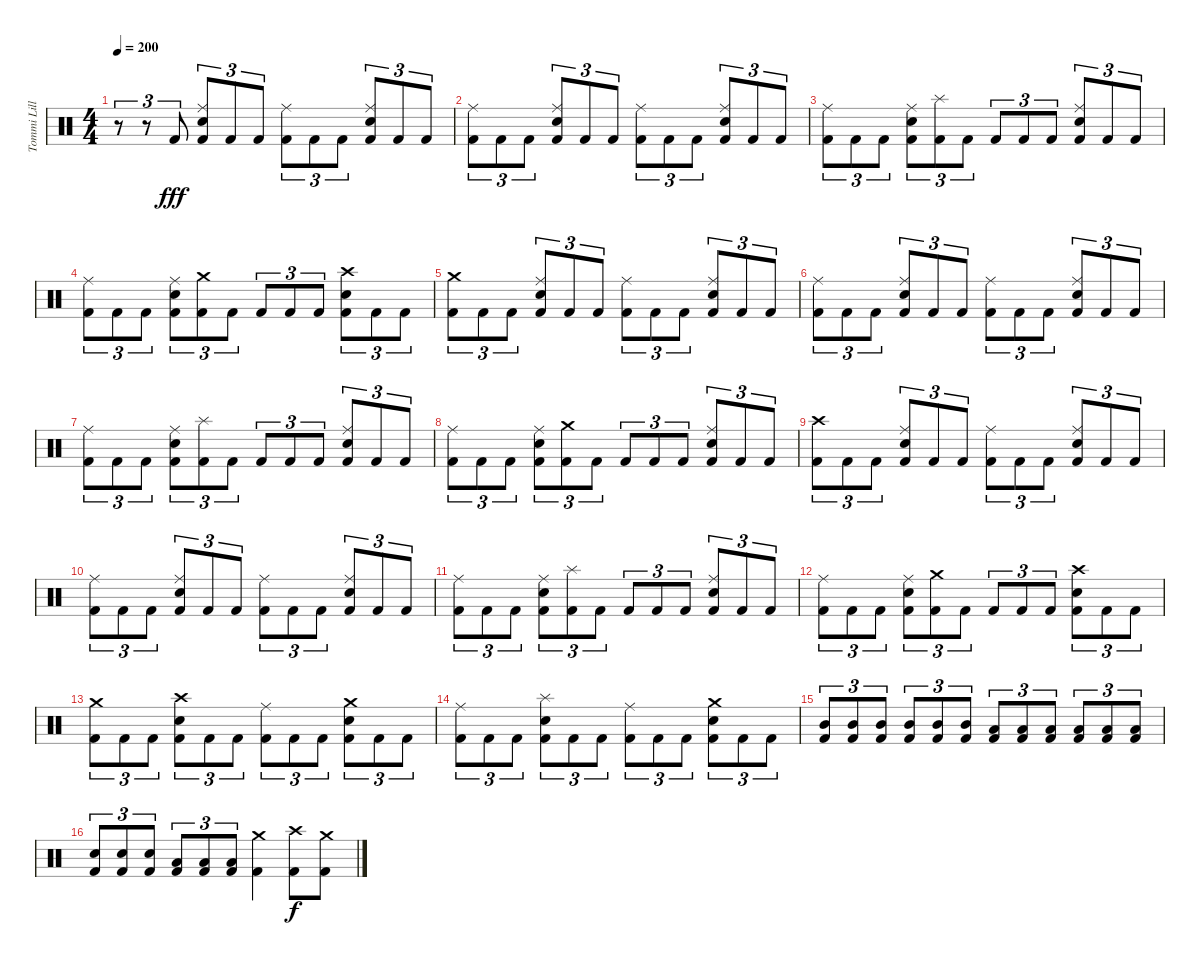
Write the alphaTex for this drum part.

\track ("Tommi Lillman" "Tommi Lill") {instrument percussion}
\staff {score}
\articulation defaults
\ts (4 4)
\tempo 200
\clef neutral
\ks c
r.8{tu (3 2) dy fff} r.8{tu (3 2)} "Kick (hit) 2".8{tu (3 2)} ("Ride (middle)" "Electric Snare (hit)" "Kick (hit) 2").8{tu (3 2)} "Kick (hit) 2".8{tu (3 2)} "Kick (hit) 2".8{tu (3 2)} ("Ride (middle)" "Kick (hit) 2").8{tu (3 2)} "Kick (hit) 2".8{tu (3 2)} "Kick (hit) 2".8{tu (3 2)} ("Ride (middle)" "Electric Snare (hit)" "Kick (hit) 2").8{tu (3 2)} "Kick (hit) 2".8{tu (3 2)} "Kick (hit) 2".8{tu (3 2)} |
("Ride (middle)" "Kick (hit) 2").8{tu (3 2)} "Kick (hit) 2".8{tu (3 2)} "Kick (hit) 2".8{tu (3 2)} ("Ride (middle)" "Electric Snare (hit)" "Kick (hit) 2").8{tu (3 2)} "Kick (hit) 2".8{tu (3 2)} "Kick (hit) 2".8{tu (3 2)} ("Ride (middle)" "Kick (hit) 2").8{tu (3 2)} "Kick (hit) 2".8{tu (3 2)} "Kick (hit) 2".8{tu (3 2)} ("Ride (middle)" "Electric Snare (hit)" "Kick (hit) 2").8{tu (3 2)} "Kick (hit) 2".8{tu (3 2)} "Kick (hit) 2".8{tu (3 2)} |
("Ride (middle)" "Kick (hit) 2").8{tu (3 2)} "Kick (hit) 2".8{tu (3 2)} "Kick (hit) 2".8{tu (3 2)} ("Ride (middle)" "Electric Snare (hit)" "Kick (hit) 2").8{tu (3 2)} ("Splash (hit)" "Kick (hit) 2").8{tu (3 2)} "Kick (hit) 2".8{tu (3 2)} "Kick (hit) 2".8{tu (3 2)} "Kick (hit) 2".8{tu (3 2)} "Kick (hit) 2".8{tu (3 2)} ("Ride (middle)" "Electric Snare (hit)" "Kick (hit) 2").8{tu (3 2)} "Kick (hit) 2".8{tu (3 2)} "Kick (hit) 2".8{tu (3 2)} |
("Ride (middle)" "Kick (hit) 2").8{tu (3 2)} "Kick (hit) 2".8{tu (3 2)} "Kick (hit) 2".8{tu (3 2)} ("Ride (middle)" "Electric Snare (hit)" "Kick (hit) 2").8{tu (3 2)} ("Crash medium (hit)" "Kick (hit) 2").8{tu (3 2)} "Kick (hit) 2".8{tu (3 2)} "Kick (hit) 2".8{tu (3 2)} "Kick (hit) 2".8{tu (3 2)} "Kick (hit) 2".8{tu (3 2)} ("Crash high (hit)" "Electric Snare (hit)" "Kick (hit) 2").8{tu (3 2)} "Kick (hit) 2".8{tu (3 2)} "Kick (hit) 2".8{tu (3 2)} |
("Crash medium (hit)" "Kick (hit) 2").8{tu (3 2)} "Kick (hit) 2".8{tu (3 2)} "Kick (hit) 2".8{tu (3 2)} ("Ride (middle)" "Electric Snare (hit)" "Kick (hit) 2").8{tu (3 2)} "Kick (hit) 2".8{tu (3 2)} "Kick (hit) 2".8{tu (3 2)} ("Ride (middle)" "Kick (hit) 2").8{tu (3 2)} "Kick (hit) 2".8{tu (3 2)} "Kick (hit) 2".8{tu (3 2)} ("Ride (middle)" "Electric Snare (hit)" "Kick (hit) 2").8{tu (3 2)} "Kick (hit) 2".8{tu (3 2)} "Kick (hit) 2".8{tu (3 2)} |
("Ride (middle)" "Kick (hit) 2").8{tu (3 2)} "Kick (hit) 2".8{tu (3 2)} "Kick (hit) 2".8{tu (3 2)} ("Ride (middle)" "Electric Snare (hit)" "Kick (hit) 2").8{tu (3 2)} "Kick (hit) 2".8{tu (3 2)} "Kick (hit) 2".8{tu (3 2)} ("Ride (middle)" "Kick (hit) 2").8{tu (3 2)} "Kick (hit) 2".8{tu (3 2)} "Kick (hit) 2".8{tu (3 2)} ("Ride (middle)" "Electric Snare (hit)" "Kick (hit) 2").8{tu (3 2)} "Kick (hit) 2".8{tu (3 2)} "Kick (hit) 2".8{tu (3 2)} |
("Ride (middle)" "Kick (hit) 2").8{tu (3 2)} "Kick (hit) 2".8{tu (3 2)} "Kick (hit) 2".8{tu (3 2)} ("Ride (middle)" "Electric Snare (hit)" "Kick (hit) 2").8{tu (3 2)} ("Splash (hit)" "Kick (hit) 2").8{tu (3 2)} "Kick (hit) 2".8{tu (3 2)} "Kick (hit) 2".8{tu (3 2)} "Kick (hit) 2".8{tu (3 2)} "Kick (hit) 2".8{tu (3 2)} ("Ride (middle)" "Electric Snare (hit)" "Kick (hit) 2").8{tu (3 2)} "Kick (hit) 2".8{tu (3 2)} "Kick (hit) 2".8{tu (3 2)} |
("Ride (middle)" "Kick (hit) 2").8{tu (3 2)} "Kick (hit) 2".8{tu (3 2)} "Kick (hit) 2".8{tu (3 2)} ("Ride (middle)" "Electric Snare (hit)" "Kick (hit) 2").8{tu (3 2)} ("Crash medium (hit)" "Kick (hit) 2").8{tu (3 2)} "Kick (hit) 2".8{tu (3 2)} "Kick (hit) 2".8{tu (3 2)} "Kick (hit) 2".8{tu (3 2)} "Kick (hit) 2".8{tu (3 2)} ("Ride (middle)" "Electric Snare (hit)" "Kick (hit) 2").8{tu (3 2)} "Kick (hit) 2".8{tu (3 2)} "Kick (hit) 2".8{tu (3 2)} |
("Crash high (hit)" "Kick (hit) 2").8{tu (3 2)} "Kick (hit) 2".8{tu (3 2)} "Kick (hit) 2".8{tu (3 2)} ("Ride (middle)" "Electric Snare (hit)" "Kick (hit) 2").8{tu (3 2)} "Kick (hit) 2".8{tu (3 2)} "Kick (hit) 2".8{tu (3 2)} ("Ride (middle)" "Kick (hit) 2").8{tu (3 2)} "Kick (hit) 2".8{tu (3 2)} "Kick (hit) 2".8{tu (3 2)} ("Ride (middle)" "Electric Snare (hit)" "Kick (hit) 2").8{tu (3 2)} "Kick (hit) 2".8{tu (3 2)} "Kick (hit) 2".8{tu (3 2)} |
("Ride (middle)" "Kick (hit) 2").8{tu (3 2)} "Kick (hit) 2".8{tu (3 2)} "Kick (hit) 2".8{tu (3 2)} ("Ride (middle)" "Electric Snare (hit)" "Kick (hit) 2").8{tu (3 2)} "Kick (hit) 2".8{tu (3 2)} "Kick (hit) 2".8{tu (3 2)} ("Ride (middle)" "Kick (hit) 2").8{tu (3 2)} "Kick (hit) 2".8{tu (3 2)} "Kick (hit) 2".8{tu (3 2)} ("Ride (middle)" "Electric Snare (hit)" "Kick (hit) 2").8{tu (3 2)} "Kick (hit) 2".8{tu (3 2)} "Kick (hit) 2".8{tu (3 2)} |
("Ride (middle)" "Kick (hit) 2").8{tu (3 2)} "Kick (hit) 2".8{tu (3 2)} "Kick (hit) 2".8{tu (3 2)} ("Ride (middle)" "Electric Snare (hit)" "Kick (hit) 2").8{tu (3 2)} ("Splash (hit)" "Kick (hit) 2").8{tu (3 2)} "Kick (hit) 2".8{tu (3 2)} "Kick (hit) 2".8{tu (3 2)} "Kick (hit) 2".8{tu (3 2)} "Kick (hit) 2".8{tu (3 2)} ("Ride (middle)" "Electric Snare (hit)" "Kick (hit) 2").8{tu (3 2)} "Kick (hit) 2".8{tu (3 2)} "Kick (hit) 2".8{tu (3 2)} |
("Ride (middle)" "Kick (hit) 2").8{tu (3 2)} "Kick (hit) 2".8{tu (3 2)} "Kick (hit) 2".8{tu (3 2)} ("Ride (middle)" "Electric Snare (hit)" "Kick (hit) 2").8{tu (3 2)} ("Crash medium (hit)" "Kick (hit) 2").8{tu (3 2)} "Kick (hit) 2".8{tu (3 2)} "Kick (hit) 2".8{tu (3 2)} "Kick (hit) 2".8{tu (3 2)} "Kick (hit) 2".8{tu (3 2)} ("Crash high (hit)" "Electric Snare (hit)" "Kick (hit) 2").8{tu (3 2)} "Kick (hit) 2".8{tu (3 2)} "Kick (hit) 2".8{tu (3 2)} |
("Crash medium (hit)" "Kick (hit) 2").8{tu (3 2)} "Kick (hit) 2".8{tu (3 2)} "Kick (hit) 2".8{tu (3 2)} ("Crash high (hit)" "Electric Snare (hit)" "Kick (hit) 2").8{tu (3 2)} "Kick (hit) 2".8{tu (3 2)} "Kick (hit) 2".8{tu (3 2)} ("Ride (middle)" "Kick (hit) 2").8{tu (3 2)} "Kick (hit) 2".8{tu (3 2)} "Kick (hit) 2".8{tu (3 2)} ("Crash medium (hit)" "Electric Snare (hit)" "Kick (hit) 2").8{tu (3 2)} "Kick (hit) 2".8{tu (3 2)} "Kick (hit) 2".8{tu (3 2)} |
("Ride (middle)" "Kick (hit) 2").8{tu (3 2)} "Kick (hit) 2".8{tu (3 2)} "Kick (hit) 2".8{tu (3 2)} ("Splash (hit)" "Electric Snare (hit)" "Kick (hit) 2").8{tu (3 2)} "Kick (hit) 2".8{tu (3 2)} "Kick (hit) 2".8{tu (3 2)} ("Ride (middle)" "Kick (hit) 2").8{tu (3 2)} "Kick (hit) 2".8{tu (3 2)} "Kick (hit) 2".8{tu (3 2)} ("Crash medium (hit)" "Electric Snare (hit)" "Kick (hit) 2").8{tu (3 2)} "Kick (hit) 2".8{tu (3 2)} "Kick (hit) 2".8{tu (3 2)} |
("Mid Tom (hit)" "Kick (hit) 2").8{tu (3 2)} ("Mid Tom (hit)" "Kick (hit) 2").8{tu (3 2)} ("Mid Tom (hit)" "Kick (hit) 2").8{tu (3 2)} ("Mid Tom (hit)" "Kick (hit) 2").8{tu (3 2)} ("Mid Tom (hit)" "Kick (hit) 2").8{tu (3 2)} ("Mid Tom (hit)" "Kick (hit) 2").8{tu (3 2)} ("Low Tom (hit)" "Kick (hit) 2").8{tu (3 2)} ("Low Tom (hit)" "Kick (hit) 2").8{tu (3 2)} ("Low Tom (hit)" "Kick (hit) 2").8{tu (3 2)} ("Low Tom (hit)" "Kick (hit) 2").8{tu (3 2)} ("Low Tom (hit)" "Kick (hit) 2").8{tu (3 2)} ("Low Tom (hit)" "Kick (hit) 2").8{tu (3 2)} |
("Electric Snare (hit)" "Kick (hit) 2").8{tu (3 2)} ("Electric Snare (hit)" "Kick (hit) 2").8{tu (3 2)} ("Electric Snare (hit)" "Kick (hit) 2").8{tu (3 2)} ("Low Tom (hit)" "Kick (hit) 2").8{tu (3 2)} ("Low Tom (hit)" "Kick (hit) 2").8{tu (3 2)} ("Low Tom (hit)" "Kick (hit) 2").8{tu (3 2)} ("Crash medium (hit)" "Kick (hit) 2").4 ("Crash high (hit)" "Kick (hit) 2").8{dy f} ("Crash medium (hit)" "Kick (hit) 2").8
